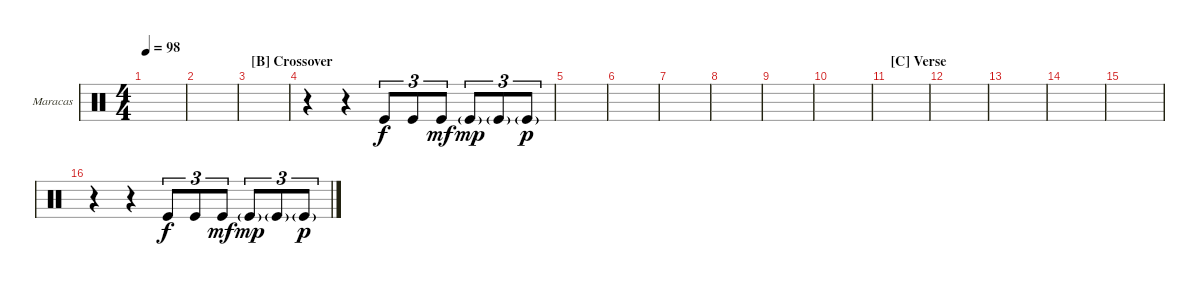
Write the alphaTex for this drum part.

\defaultSystemsLayout 4
\bracketExtendMode groupsimilarinstruments
\firstSystemTrackNameOrientation horizontal
\otherSystemsTrackNameOrientation horizontal
\track ("Maracas" "Maracas") {instrument percussion}
\staff {score}
\articulation defaults
\ts (4 4)
\tempo 98
\clef neutral
\ks c
|
|
\section ("B" "Crossover")
|
r.4 r.4 "Kick (hit)".8{tu (3 2) dy f} "Kick (hit)".8{tu (3 2)} "Kick (hit)".8{tu (3 2) dy mf} "Kick (hit)"{g}.8{tu (3 2) dy mp} "Kick (hit)"{g}.8{tu (3 2)} "Kick (hit)"{g}.8{tu (3 2) dy p} |
|
|
|
|
|
|
\section ("C" "Verse")
|
|
|
|
|
r.4 r.4 "Kick (hit)".8{tu (3 2) dy f} "Kick (hit)".8{tu (3 2)} "Kick (hit)".8{tu (3 2) dy mf} "Kick (hit)"{g}.8{tu (3 2) dy mp} "Kick (hit)"{g}.8{tu (3 2)} "Kick (hit)"{g}.8{tu (3 2) dy p}
